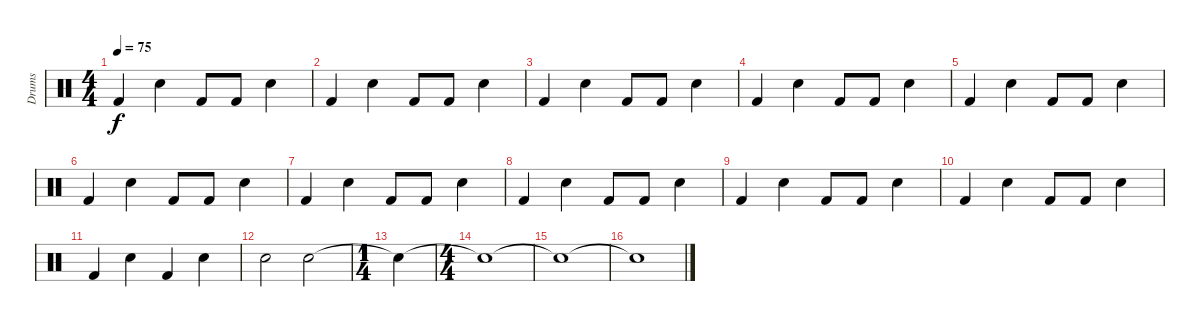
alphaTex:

\track ("Drums" "Drums") {instrument percussion}
\staff {score}
\articulation defaults
\ts (4 4)
\tempo 75
\clef neutral
\ks c "Kick (hit) 2".4{dy f} "Snare (hit) 2".4 "Kick (hit) 2".8 "Kick (hit) 2".8 "Snare (hit) 2".4
|
"Kick (hit) 2".4 "Snare (hit) 2".4 "Kick (hit) 2".8 "Kick (hit) 2".8 "Snare (hit) 2".4 |
"Kick (hit) 2".4 "Snare (hit) 2".4 "Kick (hit) 2".8 "Kick (hit) 2".8 "Snare (hit) 2".4 |
"Kick (hit) 2".4 "Snare (hit) 2".4 "Kick (hit) 2".8 "Kick (hit) 2".8 "Snare (hit) 2".4 |
"Kick (hit) 2".4 "Snare (hit) 2".4 "Kick (hit) 2".8 "Kick (hit) 2".8 "Snare (hit) 2".4 |
"Kick (hit) 2".4 "Snare (hit) 2".4 "Kick (hit) 2".8 "Kick (hit) 2".8 "Snare (hit) 2".4 |
"Kick (hit) 2".4 "Snare (hit) 2".4 "Kick (hit) 2".8 "Kick (hit) 2".8 "Snare (hit) 2".4 |
"Kick (hit) 2".4 "Snare (hit) 2".4 "Kick (hit) 2".8 "Kick (hit) 2".8 "Snare (hit) 2".4 |
"Kick (hit) 2".4 "Snare (hit) 2".4 "Kick (hit) 2".8 "Kick (hit) 2".8 "Snare (hit) 2".4 |
"Kick (hit) 2".4 "Snare (hit) 2".4 "Kick (hit) 2".8 "Kick (hit) 2".8 "Snare (hit) 2".4 |
"Kick (hit) 2".4 "Snare (hit) 2".4 "Kick (hit) 2".4 "Snare (hit) 2".4 |
"Snare (hit) 2".2 "Snare (hit) 2".2 |
\ts (1 4)
"Snare (hit)"{t}.4 |
\ts (4 4)
"Snare (hit)"{t}.1 |
"Snare (hit)"{t}.1 |
"Snare (hit)"{t}.1
